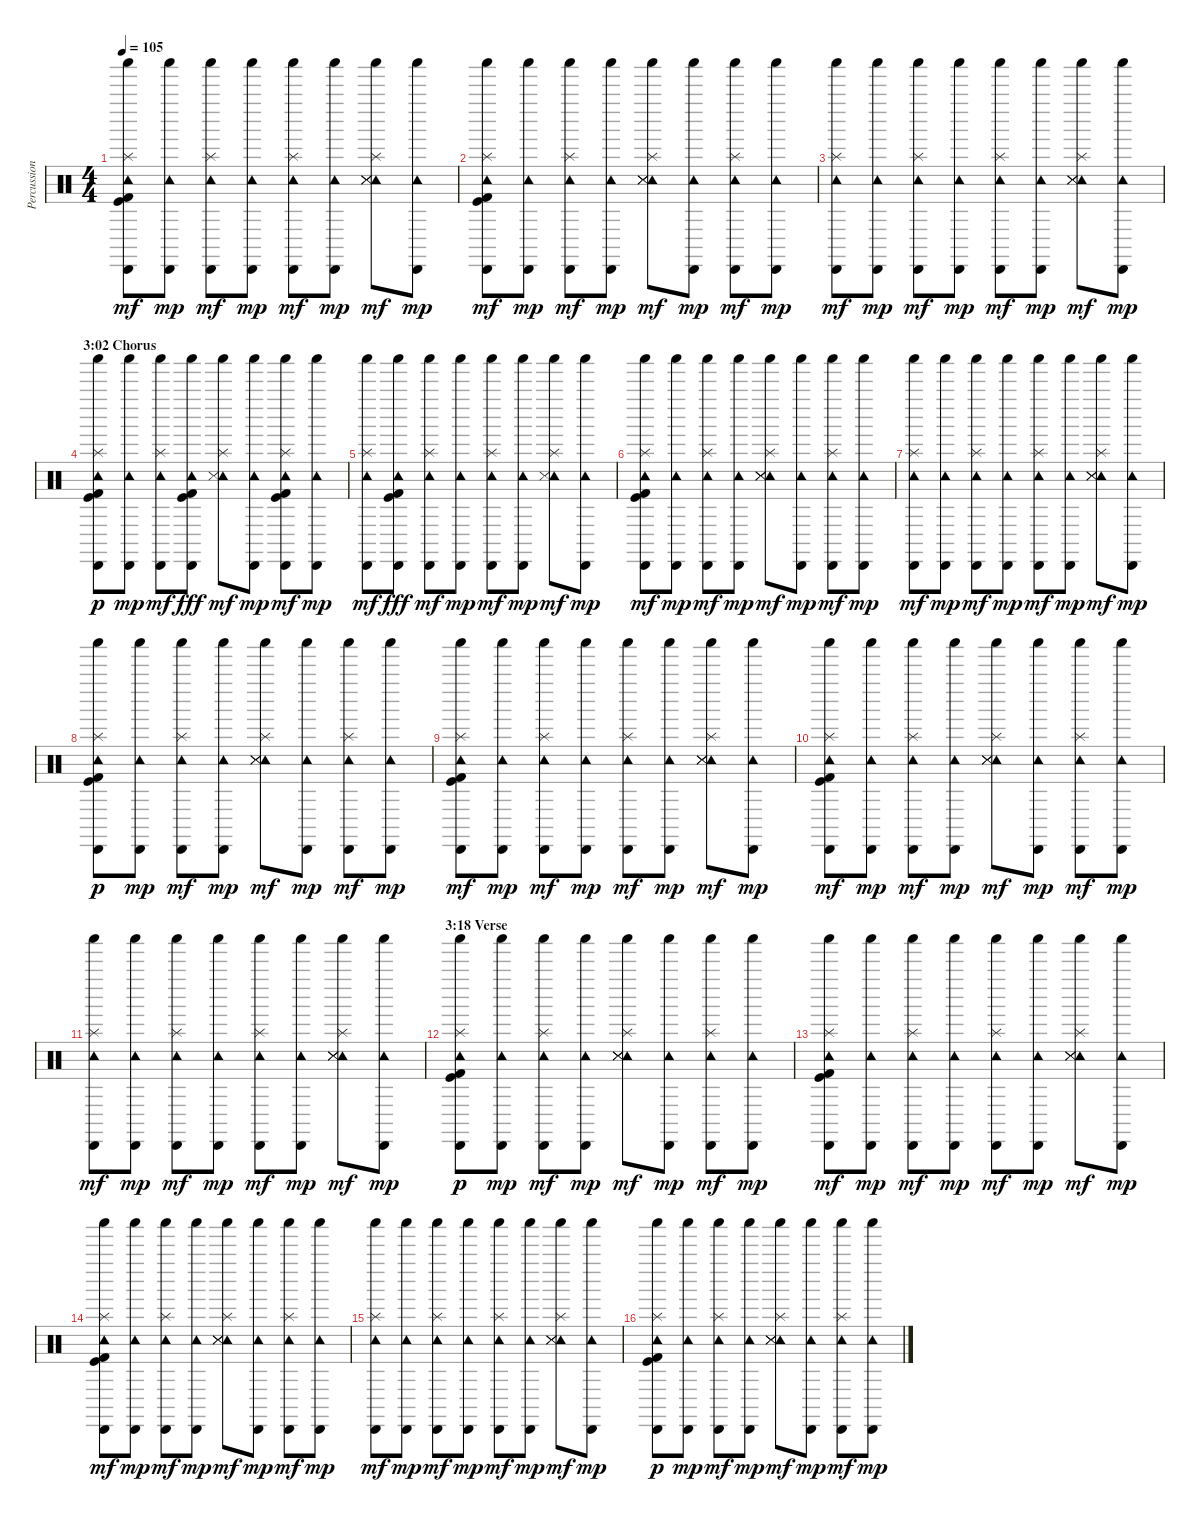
\track ("Percussion (Ian Paice)" "Percussion") {instrument percussion}
\staff {score}
\articulation defaults
\ts (4 4)
\tempo 105
\clef neutral
\ks c
("Shaker (hit)" "Tambourine (hit)" "Cabasa (hit)" "Kick (hit)" "Kick (hit) 2" "Splash (hit)").8{dy mf} ("Shaker (hit)" "Tambourine (hit)" "Cabasa (hit)").8{dy mp} ("Shaker (hit)" "Tambourine (hit)" "Cabasa (hit)" "Splash (hit)").8{dy mf} ("Shaker (hit)" "Tambourine (hit)" "Cabasa (hit)").8{dy mp} ("Shaker (hit)" "Tambourine (hit)" "Cabasa (hit)" "Splash (hit)").8{dy mf} ("Shaker (hit)" "Tambourine (hit)" "Cabasa (hit)").8{dy mp} ("Shaker (hit)" "Tambourine (hit)" "Snare (side stick) 3" "Snare (side stick) 3" "Snare (side stick) 3" "Splash (hit)").8{dy mf} ("Shaker (hit)" "Tambourine (hit)" "Cabasa (hit)").8{dy mp} |
("Shaker (hit)" "Tambourine (hit)" "Cabasa (hit)" "Kick (hit)" "Kick (hit) 2" "Splash (hit)").8{dy mf} ("Shaker (hit)" "Tambourine (hit)" "Cabasa (hit)").8{dy mp} ("Shaker (hit)" "Tambourine (hit)" "Cabasa (hit)" "Splash (hit)").8{dy mf} ("Shaker (hit)" "Tambourine (hit)" "Cabasa (hit)").8{dy mp} ("Shaker (hit)" "Tambourine (hit)" "Snare (side stick) 3" "Snare (side stick) 3" "Snare (side stick) 3" "Splash (hit)").8{dy mf} ("Shaker (hit)" "Tambourine (hit)" "Cabasa (hit)").8{dy mp} ("Shaker (hit)" "Tambourine (hit)" "Cabasa (hit)" "Splash (hit)").8{dy mf} ("Shaker (hit)" "Tambourine (hit)" "Cabasa (hit)").8{dy mp} |
("Shaker (hit)" "Tambourine (hit)" "Cabasa (hit)" "Splash (hit)").8{dy mf} ("Shaker (hit)" "Tambourine (hit)" "Cabasa (hit)").8{dy mp} ("Shaker (hit)" "Tambourine (hit)" "Cabasa (hit)" "Splash (hit)").8{dy mf} ("Shaker (hit)" "Tambourine (hit)" "Cabasa (hit)").8{dy mp} ("Shaker (hit)" "Tambourine (hit)" "Cabasa (hit)" "Splash (hit)").8{dy mf} ("Shaker (hit)" "Tambourine (hit)" "Cabasa (hit)").8{dy mp} ("Shaker (hit)" "Tambourine (hit)" "Snare (side stick) 3" "Snare (side stick) 3" "Snare (side stick) 3" "Splash (hit)").8{dy mf} ("Shaker (hit)" "Tambourine (hit)" "Cabasa (hit)").8{dy mp} |
\section ("" "3:02 Chorus")
("Shaker (hit)" "Tambourine (hit)" "Cabasa (hit)" "Kick (hit)" "Kick (hit) 2" "Splash (hit)").8{dy p} ("Shaker (hit)" "Tambourine (hit)" "Cabasa (hit)").8{dy mp} ("Shaker (hit)" "Tambourine (hit)" "Cabasa (hit)" "Splash (hit)").8{dy mf} ("Shaker (hit)" "Tambourine (hit)" "Cabasa (hit)" "Kick (hit)" "Kick (hit) 2").8{dy fff} ("Shaker (hit)" "Tambourine (hit)" "Snare (side stick) 3" "Splash (hit)").8{dy mf} ("Shaker (hit)" "Tambourine (hit)" "Cabasa (hit)").8{dy mp} ("Shaker (hit)" "Tambourine (hit)" "Cabasa (hit)" "Kick (hit)" "Kick (hit) 2" "Splash (hit)").8{dy mf} ("Shaker (hit)" "Tambourine (hit)" "Cabasa (hit)").8{dy mp} |
("Shaker (hit)" "Tambourine (hit)" "Cabasa (hit)" "Splash (hit)").8{dy mf} ("Shaker (hit)" "Tambourine (hit)" "Cabasa (hit)" "Kick (hit) 2" "Kick (hit)").8{dy fff} ("Shaker (hit)" "Tambourine (hit)" "Cabasa (hit)" "Splash (hit)").8{dy mf} ("Shaker (hit)" "Tambourine (hit)" "Cabasa (hit)").8{dy mp} ("Shaker (hit)" "Tambourine (hit)" "Cabasa (hit)" "Splash (hit)").8{dy mf} ("Shaker (hit)" "Tambourine (hit)" "Cabasa (hit)").8{dy mp} ("Shaker (hit)" "Tambourine (hit)" "Snare (side stick) 3" "Splash (hit)").8{dy mf} ("Shaker (hit)" "Tambourine (hit)" "Cabasa (hit)").8{dy mp} |
("Shaker (hit)" "Tambourine (hit)" "Cabasa (hit)" "Kick (hit)" "Kick (hit) 2" "Splash (hit)").8{dy mf} ("Shaker (hit)" "Tambourine (hit)" "Cabasa (hit)").8{dy mp} ("Shaker (hit)" "Tambourine (hit)" "Cabasa (hit)" "Splash (hit)").8{dy mf} ("Shaker (hit)" "Tambourine (hit)" "Cabasa (hit)").8{dy mp} ("Shaker (hit)" "Tambourine (hit)" "Snare (side stick) 3" "Snare (side stick) 3" "Snare (side stick) 3" "Splash (hit)").8{dy mf} ("Shaker (hit)" "Tambourine (hit)" "Cabasa (hit)").8{dy mp} ("Shaker (hit)" "Tambourine (hit)" "Cabasa (hit)" "Splash (hit)").8{dy mf} ("Shaker (hit)" "Tambourine (hit)" "Cabasa (hit)").8{dy mp} |
("Shaker (hit)" "Tambourine (hit)" "Cabasa (hit)" "Splash (hit)").8{dy mf} ("Shaker (hit)" "Tambourine (hit)" "Cabasa (hit)").8{dy mp} ("Shaker (hit)" "Tambourine (hit)" "Cabasa (hit)" "Splash (hit)").8{dy mf} ("Shaker (hit)" "Tambourine (hit)" "Cabasa (hit)").8{dy mp} ("Shaker (hit)" "Tambourine (hit)" "Cabasa (hit)" "Splash (hit)").8{dy mf} ("Shaker (hit)" "Tambourine (hit)" "Cabasa (hit)").8{dy mp} ("Shaker (hit)" "Tambourine (hit)" "Snare (side stick) 3" "Snare (side stick) 3" "Snare (side stick) 3" "Splash (hit)").8{dy mf} ("Shaker (hit)" "Tambourine (hit)" "Cabasa (hit)").8{dy mp} |
("Shaker (hit)" "Tambourine (hit)" "Cabasa (hit)" "Kick (hit)" "Kick (hit) 2" "Splash (hit)").8{dy p} ("Shaker (hit)" "Tambourine (hit)" "Cabasa (hit)").8{dy mp} ("Shaker (hit)" "Tambourine (hit)" "Cabasa (hit)" "Splash (hit)").8{dy mf} ("Shaker (hit)" "Tambourine (hit)" "Cabasa (hit)").8{dy mp} ("Shaker (hit)" "Tambourine (hit)" "Snare (side stick) 3" "Snare (side stick) 3" "Snare (side stick) 3" "Splash (hit)").8{dy mf} ("Shaker (hit)" "Tambourine (hit)" "Cabasa (hit)").8{dy mp} ("Shaker (hit)" "Tambourine (hit)" "Cabasa (hit)" "Splash (hit)").8{dy mf} ("Shaker (hit)" "Tambourine (hit)" "Cabasa (hit)").8{dy mp} |
("Shaker (hit)" "Tambourine (hit)" "Cabasa (hit)" "Kick (hit)" "Kick (hit) 2" "Splash (hit)").8{dy mf} ("Shaker (hit)" "Tambourine (hit)" "Cabasa (hit)").8{dy mp} ("Shaker (hit)" "Tambourine (hit)" "Cabasa (hit)" "Splash (hit)").8{dy mf} ("Shaker (hit)" "Tambourine (hit)" "Cabasa (hit)").8{dy mp} ("Shaker (hit)" "Tambourine (hit)" "Cabasa (hit)" "Splash (hit)").8{dy mf} ("Shaker (hit)" "Tambourine (hit)" "Cabasa (hit)").8{dy mp} ("Shaker (hit)" "Tambourine (hit)" "Snare (side stick) 3" "Snare (side stick) 3" "Snare (side stick) 3" "Splash (hit)").8{dy mf} ("Shaker (hit)" "Tambourine (hit)" "Cabasa (hit)").8{dy mp} |
("Shaker (hit)" "Tambourine (hit)" "Cabasa (hit)" "Kick (hit)" "Kick (hit) 2" "Splash (hit)").8{dy mf} ("Shaker (hit)" "Tambourine (hit)" "Cabasa (hit)").8{dy mp} ("Shaker (hit)" "Tambourine (hit)" "Cabasa (hit)" "Splash (hit)").8{dy mf} ("Shaker (hit)" "Tambourine (hit)" "Cabasa (hit)").8{dy mp} ("Shaker (hit)" "Tambourine (hit)" "Snare (side stick) 3" "Snare (side stick) 3" "Snare (side stick) 3" "Splash (hit)").8{dy mf} ("Shaker (hit)" "Tambourine (hit)" "Cabasa (hit)").8{dy mp} ("Shaker (hit)" "Tambourine (hit)" "Cabasa (hit)" "Splash (hit)").8{dy mf} ("Shaker (hit)" "Tambourine (hit)" "Cabasa (hit)").8{dy mp} |
("Shaker (hit)" "Tambourine (hit)" "Cabasa (hit)" "Splash (hit)").8{dy mf} ("Shaker (hit)" "Tambourine (hit)" "Cabasa (hit)").8{dy mp} ("Shaker (hit)" "Tambourine (hit)" "Cabasa (hit)" "Splash (hit)").8{dy mf} ("Shaker (hit)" "Tambourine (hit)" "Cabasa (hit)").8{dy mp} ("Shaker (hit)" "Tambourine (hit)" "Cabasa (hit)" "Splash (hit)").8{dy mf} ("Shaker (hit)" "Tambourine (hit)" "Cabasa (hit)").8{dy mp} ("Shaker (hit)" "Tambourine (hit)" "Snare (side stick) 3" "Snare (side stick) 3" "Snare (side stick) 3" "Splash (hit)").8{dy mf} ("Shaker (hit)" "Tambourine (hit)" "Cabasa (hit)").8{dy mp} |
\section ("" "3:18 Verse")
("Shaker (hit)" "Tambourine (hit)" "Cabasa (hit)" "Kick (hit)" "Kick (hit) 2" "Splash (hit)").8{dy p} ("Shaker (hit)" "Tambourine (hit)" "Cabasa (hit)").8{dy mp} ("Shaker (hit)" "Tambourine (hit)" "Cabasa (hit)" "Splash (hit)").8{dy mf} ("Shaker (hit)" "Tambourine (hit)" "Cabasa (hit)").8{dy mp} ("Shaker (hit)" "Tambourine (hit)" "Snare (side stick) 3" "Snare (side stick) 3" "Snare (side stick) 3" "Splash (hit)").8{dy mf} ("Shaker (hit)" "Tambourine (hit)" "Cabasa (hit)").8{dy mp} ("Shaker (hit)" "Tambourine (hit)" "Cabasa (hit)" "Splash (hit)").8{dy mf} ("Shaker (hit)" "Tambourine (hit)" "Cabasa (hit)").8{dy mp} |
("Shaker (hit)" "Tambourine (hit)" "Cabasa (hit)" "Kick (hit)" "Kick (hit) 2" "Splash (hit)").8{dy mf} ("Shaker (hit)" "Tambourine (hit)" "Cabasa (hit)").8{dy mp} ("Shaker (hit)" "Tambourine (hit)" "Cabasa (hit)" "Splash (hit)").8{dy mf} ("Shaker (hit)" "Tambourine (hit)" "Cabasa (hit)").8{dy mp} ("Shaker (hit)" "Tambourine (hit)" "Cabasa (hit)" "Splash (hit)").8{dy mf} ("Shaker (hit)" "Tambourine (hit)" "Cabasa (hit)").8{dy mp} ("Shaker (hit)" "Tambourine (hit)" "Snare (side stick) 3" "Snare (side stick) 3" "Snare (side stick) 3" "Splash (hit)").8{dy mf} ("Shaker (hit)" "Tambourine (hit)" "Cabasa (hit)").8{dy mp} |
("Shaker (hit)" "Tambourine (hit)" "Cabasa (hit)" "Kick (hit)" "Kick (hit) 2" "Splash (hit)").8{dy mf} ("Shaker (hit)" "Tambourine (hit)" "Cabasa (hit)").8{dy mp} ("Shaker (hit)" "Tambourine (hit)" "Cabasa (hit)" "Splash (hit)").8{dy mf} ("Shaker (hit)" "Tambourine (hit)" "Cabasa (hit)").8{dy mp} ("Shaker (hit)" "Tambourine (hit)" "Snare (side stick) 3" "Snare (side stick) 3" "Snare (side stick) 3" "Splash (hit)").8{dy mf} ("Shaker (hit)" "Tambourine (hit)" "Cabasa (hit)").8{dy mp} ("Shaker (hit)" "Tambourine (hit)" "Cabasa (hit)" "Splash (hit)").8{dy mf} ("Shaker (hit)" "Tambourine (hit)" "Cabasa (hit)").8{dy mp} |
("Shaker (hit)" "Tambourine (hit)" "Cabasa (hit)" "Splash (hit)").8{dy mf} ("Shaker (hit)" "Tambourine (hit)" "Cabasa (hit)").8{dy mp} ("Shaker (hit)" "Tambourine (hit)" "Cabasa (hit)" "Splash (hit)").8{dy mf} ("Shaker (hit)" "Tambourine (hit)" "Cabasa (hit)").8{dy mp} ("Shaker (hit)" "Tambourine (hit)" "Cabasa (hit)" "Splash (hit)").8{dy mf} ("Shaker (hit)" "Tambourine (hit)" "Cabasa (hit)").8{dy mp} ("Shaker (hit)" "Tambourine (hit)" "Snare (side stick) 3" "Snare (side stick) 3" "Snare (side stick) 3" "Splash (hit)").8{dy mf} ("Shaker (hit)" "Tambourine (hit)" "Cabasa (hit)").8{dy mp} |
("Shaker (hit)" "Tambourine (hit)" "Cabasa (hit)" "Kick (hit)" "Kick (hit) 2" "Splash (hit)").8{dy p} ("Shaker (hit)" "Tambourine (hit)" "Cabasa (hit)").8{dy mp} ("Shaker (hit)" "Tambourine (hit)" "Cabasa (hit)" "Splash (hit)").8{dy mf} ("Shaker (hit)" "Tambourine (hit)" "Cabasa (hit)").8{dy mp} ("Shaker (hit)" "Tambourine (hit)" "Snare (side stick) 3" "Snare (side stick) 3" "Snare (side stick) 3" "Splash (hit)").8{dy mf} ("Shaker (hit)" "Tambourine (hit)" "Cabasa (hit)").8{dy mp} ("Shaker (hit)" "Tambourine (hit)" "Cabasa (hit)" "Splash (hit)").8{dy mf} ("Shaker (hit)" "Tambourine (hit)" "Cabasa (hit)").8{dy mp}
